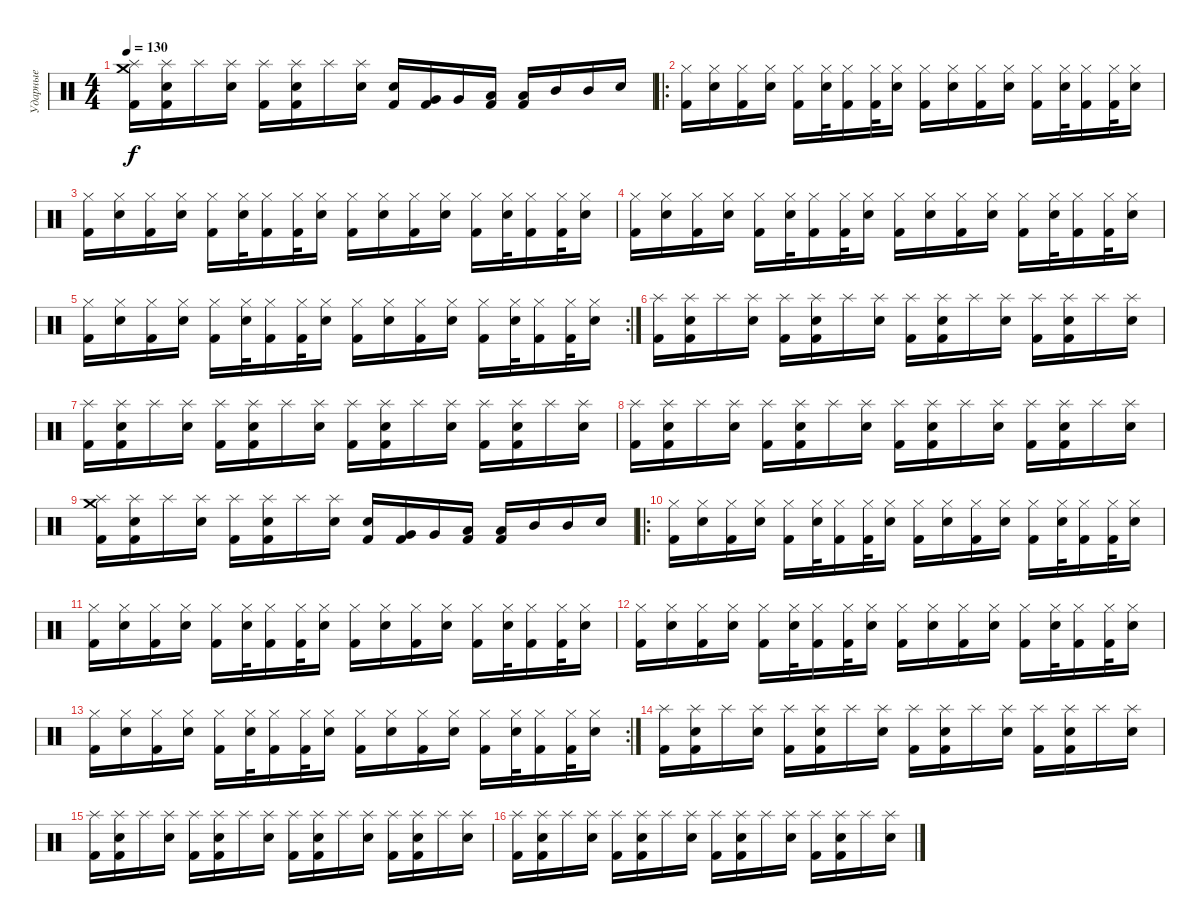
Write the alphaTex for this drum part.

\track ("Ударные" "Ударные") {instrument percussion}
\staff {score}
\articulation defaults
\ts (4 4)
\tempo 130
\clef neutral
\ks c
("Crash medium (hit)" "Splash (hit)" "Kick (hit) 2").16{dy f} ("Electric Snare (hit)" "Splash (hit)" "Kick (hit) 2").16 "Splash (hit)".16 ("Electric Snare (hit)" "Splash (hit)").16 ("Splash (hit)" "Kick (hit) 2").16 ("Electric Snare (hit)" "Splash (hit)" "Kick (hit) 2").16 "Splash (hit)".16 ("Electric Snare (hit)" "Splash (hit)").16 ("Electric Snare (hit)" "Kick (hit) 2").16 ("Very Low Tom (hit)" "Kick (hit) 2").16 "Very Low Tom (hit)".16 ("Low Tom (hit)" "Kick (hit) 2").16 ("Low Tom (hit)" "Kick (hit) 2").16 "Mid Tom (hit)".16 "Mid Tom (hit)".16 "Snare (hit) 2".16 |
\ro
("Hi-Hat (closed)" "Kick (hit) 2").16 ("Hi-Hat (closed)" "Snare (hit) 2").16 ("Hi-Hat (closed)" "Kick (hit) 2").16 ("Hi-Hat (closed)" "Snare (hit) 2").16 ("Hi-Hat (closed)" "Kick (hit) 2").16 ("Hi-Hat (closed)" "Snare (hit) 2").32 ("Hi-Hat (closed)" "Kick (hit) 2").16 ("Hi-Hat (closed)" "Kick (hit) 2").32 ("Hi-Hat (closed)" "Snare (hit) 2").16 ("Hi-Hat (closed)" "Kick (hit) 2").16 ("Hi-Hat (closed)" "Snare (hit) 2").16 ("Hi-Hat (closed)" "Kick (hit) 2").16 ("Hi-Hat (closed)" "Snare (hit) 2").16 ("Hi-Hat (closed)" "Kick (hit) 2").16 ("Hi-Hat (closed)" "Snare (hit) 2").32 ("Hi-Hat (closed)" "Kick (hit) 2").16 ("Hi-Hat (closed)" "Kick (hit) 2").32 ("Hi-Hat (closed)" "Snare (hit) 2").16 |
("Hi-Hat (closed)" "Kick (hit) 2").16 ("Hi-Hat (closed)" "Snare (hit) 2").16 ("Hi-Hat (closed)" "Kick (hit) 2").16 ("Hi-Hat (closed)" "Snare (hit) 2").16 ("Hi-Hat (closed)" "Kick (hit) 2").16 ("Hi-Hat (closed)" "Snare (hit) 2").32 ("Hi-Hat (closed)" "Kick (hit) 2").16 ("Hi-Hat (closed)" "Kick (hit) 2").32 ("Hi-Hat (closed)" "Snare (hit) 2").16 ("Hi-Hat (closed)" "Kick (hit) 2").16 ("Hi-Hat (closed)" "Snare (hit) 2").16 ("Hi-Hat (closed)" "Kick (hit) 2").16 ("Hi-Hat (closed)" "Snare (hit) 2").16 ("Hi-Hat (closed)" "Kick (hit) 2").16 ("Hi-Hat (closed)" "Snare (hit) 2").32 ("Hi-Hat (closed)" "Kick (hit) 2").16 ("Hi-Hat (closed)" "Kick (hit) 2").32 ("Hi-Hat (closed)" "Snare (hit) 2").16 |
("Hi-Hat (closed)" "Kick (hit) 2").16 ("Hi-Hat (closed)" "Snare (hit) 2").16 ("Hi-Hat (closed)" "Kick (hit) 2").16 ("Hi-Hat (closed)" "Snare (hit) 2").16 ("Hi-Hat (closed)" "Kick (hit) 2").16 ("Hi-Hat (closed)" "Snare (hit) 2").32 ("Hi-Hat (closed)" "Kick (hit) 2").16 ("Hi-Hat (closed)" "Kick (hit) 2").32 ("Hi-Hat (closed)" "Snare (hit) 2").16 ("Hi-Hat (closed)" "Kick (hit) 2").16 ("Hi-Hat (closed)" "Snare (hit) 2").16 ("Hi-Hat (closed)" "Kick (hit) 2").16 ("Hi-Hat (closed)" "Snare (hit) 2").16 ("Hi-Hat (closed)" "Kick (hit) 2").16 ("Hi-Hat (closed)" "Snare (hit) 2").32 ("Hi-Hat (closed)" "Kick (hit) 2").16 ("Hi-Hat (closed)" "Kick (hit) 2").32 ("Hi-Hat (closed)" "Snare (hit) 2").16 |
\rc 2
("Hi-Hat (closed)" "Kick (hit) 2").16 ("Hi-Hat (closed)" "Snare (hit) 2").16 ("Hi-Hat (closed)" "Kick (hit) 2").16 ("Hi-Hat (closed)" "Snare (hit) 2").16 ("Hi-Hat (closed)" "Kick (hit) 2").16 ("Hi-Hat (closed)" "Snare (hit) 2").32 ("Hi-Hat (closed)" "Kick (hit) 2").16 ("Hi-Hat (closed)" "Kick (hit) 2").32 ("Hi-Hat (closed)" "Snare (hit) 2").16 ("Hi-Hat (closed)" "Kick (hit) 2").16 ("Hi-Hat (closed)" "Snare (hit) 2").16 ("Hi-Hat (closed)" "Kick (hit) 2").16 ("Hi-Hat (closed)" "Snare (hit) 2").16 ("Hi-Hat (closed)" "Kick (hit) 2").16 ("Hi-Hat (closed)" "Snare (hit) 2").32 ("Hi-Hat (closed)" "Kick (hit) 2").16 ("Hi-Hat (closed)" "Kick (hit) 2").32 ("Hi-Hat (closed)" "Snare (hit) 2").16 |
("Splash (hit)" "Kick (hit) 2").16 ("Electric Snare (hit)" "Splash (hit)" "Kick (hit) 2").16 "Splash (hit)".16 ("Electric Snare (hit)" "Splash (hit)").16 ("Splash (hit)" "Kick (hit) 2").16 ("Electric Snare (hit)" "Splash (hit)" "Kick (hit) 2").16 "Splash (hit)".16 ("Electric Snare (hit)" "Splash (hit)").16 ("Splash (hit)" "Kick (hit) 2").16 ("Electric Snare (hit)" "Splash (hit)" "Kick (hit) 2").16 "Splash (hit)".16 ("Electric Snare (hit)" "Splash (hit)").16 ("Splash (hit)" "Kick (hit) 2").16 ("Electric Snare (hit)" "Splash (hit)" "Kick (hit) 2").16 "Splash (hit)".16 ("Electric Snare (hit)" "Splash (hit)").16 |
("Splash (hit)" "Kick (hit) 2").16 ("Electric Snare (hit)" "Splash (hit)" "Kick (hit) 2").16 "Splash (hit)".16 ("Electric Snare (hit)" "Splash (hit)").16 ("Splash (hit)" "Kick (hit) 2").16 ("Electric Snare (hit)" "Splash (hit)" "Kick (hit) 2").16 "Splash (hit)".16 ("Electric Snare (hit)" "Splash (hit)").16 ("Splash (hit)" "Kick (hit) 2").16 ("Electric Snare (hit)" "Splash (hit)" "Kick (hit) 2").16 "Splash (hit)".16 ("Electric Snare (hit)" "Splash (hit)").16 ("Splash (hit)" "Kick (hit) 2").16 ("Electric Snare (hit)" "Splash (hit)" "Kick (hit) 2").16 "Splash (hit)".16 ("Electric Snare (hit)" "Splash (hit)").16 |
("Splash (hit)" "Kick (hit) 2").16 ("Electric Snare (hit)" "Splash (hit)" "Kick (hit) 2").16 "Splash (hit)".16 ("Electric Snare (hit)" "Splash (hit)").16 ("Splash (hit)" "Kick (hit) 2").16 ("Electric Snare (hit)" "Splash (hit)" "Kick (hit) 2").16 "Splash (hit)".16 ("Electric Snare (hit)" "Splash (hit)").16 ("Splash (hit)" "Kick (hit) 2").16 ("Electric Snare (hit)" "Splash (hit)" "Kick (hit) 2").16 "Splash (hit)".16 ("Electric Snare (hit)" "Splash (hit)").16 ("Splash (hit)" "Kick (hit) 2").16 ("Electric Snare (hit)" "Splash (hit)" "Kick (hit) 2").16 "Splash (hit)".16 ("Electric Snare (hit)" "Splash (hit)").16 |
("Crash medium (hit)" "Splash (hit)" "Kick (hit) 2").16 ("Electric Snare (hit)" "Splash (hit)" "Kick (hit) 2").16 "Splash (hit)".16 ("Electric Snare (hit)" "Splash (hit)").16 ("Splash (hit)" "Kick (hit) 2").16 ("Electric Snare (hit)" "Splash (hit)" "Kick (hit) 2").16 "Splash (hit)".16 ("Electric Snare (hit)" "Splash (hit)").16 ("Electric Snare (hit)" "Kick (hit) 2").16 ("Very Low Tom (hit)" "Kick (hit) 2").16 "Very Low Tom (hit)".16 ("Low Tom (hit)" "Kick (hit) 2").16 ("Low Tom (hit)" "Kick (hit) 2").16 "Mid Tom (hit)".16 "Mid Tom (hit)".16 "Snare (hit) 2".16 |
\ro
("Hi-Hat (closed)" "Kick (hit) 2").16 ("Hi-Hat (closed)" "Snare (hit) 2").16 ("Hi-Hat (closed)" "Kick (hit) 2").16 ("Hi-Hat (closed)" "Snare (hit) 2").16 ("Hi-Hat (closed)" "Kick (hit) 2").16 ("Hi-Hat (closed)" "Snare (hit) 2").32 ("Hi-Hat (closed)" "Kick (hit) 2").16 ("Hi-Hat (closed)" "Kick (hit) 2").32 ("Hi-Hat (closed)" "Snare (hit) 2").16 ("Hi-Hat (closed)" "Kick (hit) 2").16 ("Hi-Hat (closed)" "Snare (hit) 2").16 ("Hi-Hat (closed)" "Kick (hit) 2").16 ("Hi-Hat (closed)" "Snare (hit) 2").16 ("Hi-Hat (closed)" "Kick (hit) 2").16 ("Hi-Hat (closed)" "Snare (hit) 2").32 ("Hi-Hat (closed)" "Kick (hit) 2").16 ("Hi-Hat (closed)" "Kick (hit) 2").32 ("Hi-Hat (closed)" "Snare (hit) 2").16 |
("Hi-Hat (closed)" "Kick (hit) 2").16 ("Hi-Hat (closed)" "Snare (hit) 2").16 ("Hi-Hat (closed)" "Kick (hit) 2").16 ("Hi-Hat (closed)" "Snare (hit) 2").16 ("Hi-Hat (closed)" "Kick (hit) 2").16 ("Hi-Hat (closed)" "Snare (hit) 2").32 ("Hi-Hat (closed)" "Kick (hit) 2").16 ("Hi-Hat (closed)" "Kick (hit) 2").32 ("Hi-Hat (closed)" "Snare (hit) 2").16 ("Hi-Hat (closed)" "Kick (hit) 2").16 ("Hi-Hat (closed)" "Snare (hit) 2").16 ("Hi-Hat (closed)" "Kick (hit) 2").16 ("Hi-Hat (closed)" "Snare (hit) 2").16 ("Hi-Hat (closed)" "Kick (hit) 2").16 ("Hi-Hat (closed)" "Snare (hit) 2").32 ("Hi-Hat (closed)" "Kick (hit) 2").16 ("Hi-Hat (closed)" "Kick (hit) 2").32 ("Hi-Hat (closed)" "Snare (hit) 2").16 |
("Hi-Hat (closed)" "Kick (hit) 2").16 ("Hi-Hat (closed)" "Snare (hit) 2").16 ("Hi-Hat (closed)" "Kick (hit) 2").16 ("Hi-Hat (closed)" "Snare (hit) 2").16 ("Hi-Hat (closed)" "Kick (hit) 2").16 ("Hi-Hat (closed)" "Snare (hit) 2").32 ("Hi-Hat (closed)" "Kick (hit) 2").16 ("Hi-Hat (closed)" "Kick (hit) 2").32 ("Hi-Hat (closed)" "Snare (hit) 2").16 ("Hi-Hat (closed)" "Kick (hit) 2").16 ("Hi-Hat (closed)" "Snare (hit) 2").16 ("Hi-Hat (closed)" "Kick (hit) 2").16 ("Hi-Hat (closed)" "Snare (hit) 2").16 ("Hi-Hat (closed)" "Kick (hit) 2").16 ("Hi-Hat (closed)" "Snare (hit) 2").32 ("Hi-Hat (closed)" "Kick (hit) 2").16 ("Hi-Hat (closed)" "Kick (hit) 2").32 ("Hi-Hat (closed)" "Snare (hit) 2").16 |
\rc 2
("Hi-Hat (closed)" "Kick (hit) 2").16 ("Hi-Hat (closed)" "Snare (hit) 2").16 ("Hi-Hat (closed)" "Kick (hit) 2").16 ("Hi-Hat (closed)" "Snare (hit) 2").16 ("Hi-Hat (closed)" "Kick (hit) 2").16 ("Hi-Hat (closed)" "Snare (hit) 2").32 ("Hi-Hat (closed)" "Kick (hit) 2").16 ("Hi-Hat (closed)" "Kick (hit) 2").32 ("Hi-Hat (closed)" "Snare (hit) 2").16 ("Hi-Hat (closed)" "Kick (hit) 2").16 ("Hi-Hat (closed)" "Snare (hit) 2").16 ("Hi-Hat (closed)" "Kick (hit) 2").16 ("Hi-Hat (closed)" "Snare (hit) 2").16 ("Hi-Hat (closed)" "Kick (hit) 2").16 ("Hi-Hat (closed)" "Snare (hit) 2").32 ("Hi-Hat (closed)" "Kick (hit) 2").16 ("Hi-Hat (closed)" "Kick (hit) 2").32 ("Hi-Hat (closed)" "Snare (hit) 2").16 |
("Splash (hit)" "Kick (hit) 2").16 ("Electric Snare (hit)" "Splash (hit)" "Kick (hit) 2").16 "Splash (hit)".16 ("Electric Snare (hit)" "Splash (hit)").16 ("Splash (hit)" "Kick (hit) 2").16 ("Electric Snare (hit)" "Splash (hit)" "Kick (hit) 2").16 "Splash (hit)".16 ("Electric Snare (hit)" "Splash (hit)").16 ("Splash (hit)" "Kick (hit) 2").16 ("Electric Snare (hit)" "Splash (hit)" "Kick (hit) 2").16 "Splash (hit)".16 ("Electric Snare (hit)" "Splash (hit)").16 ("Splash (hit)" "Kick (hit) 2").16 ("Electric Snare (hit)" "Splash (hit)" "Kick (hit) 2").16 "Splash (hit)".16 ("Electric Snare (hit)" "Splash (hit)").16 |
("Splash (hit)" "Kick (hit) 2").16 ("Electric Snare (hit)" "Splash (hit)" "Kick (hit) 2").16 "Splash (hit)".16 ("Electric Snare (hit)" "Splash (hit)").16 ("Splash (hit)" "Kick (hit) 2").16 ("Electric Snare (hit)" "Splash (hit)" "Kick (hit) 2").16 "Splash (hit)".16 ("Electric Snare (hit)" "Splash (hit)").16 ("Splash (hit)" "Kick (hit) 2").16 ("Electric Snare (hit)" "Splash (hit)" "Kick (hit) 2").16 "Splash (hit)".16 ("Electric Snare (hit)" "Splash (hit)").16 ("Splash (hit)" "Kick (hit) 2").16 ("Electric Snare (hit)" "Splash (hit)" "Kick (hit) 2").16 "Splash (hit)".16 ("Electric Snare (hit)" "Splash (hit)").16 |
("Splash (hit)" "Kick (hit) 2").16 ("Electric Snare (hit)" "Splash (hit)" "Kick (hit) 2").16 "Splash (hit)".16 ("Electric Snare (hit)" "Splash (hit)").16 ("Splash (hit)" "Kick (hit) 2").16 ("Electric Snare (hit)" "Splash (hit)" "Kick (hit) 2").16 "Splash (hit)".16 ("Electric Snare (hit)" "Splash (hit)").16 ("Splash (hit)" "Kick (hit) 2").16 ("Electric Snare (hit)" "Splash (hit)" "Kick (hit) 2").16 "Splash (hit)".16 ("Electric Snare (hit)" "Splash (hit)").16 ("Splash (hit)" "Kick (hit) 2").16 ("Electric Snare (hit)" "Splash (hit)" "Kick (hit) 2").16 "Splash (hit)".16 ("Electric Snare (hit)" "Splash (hit)").16
